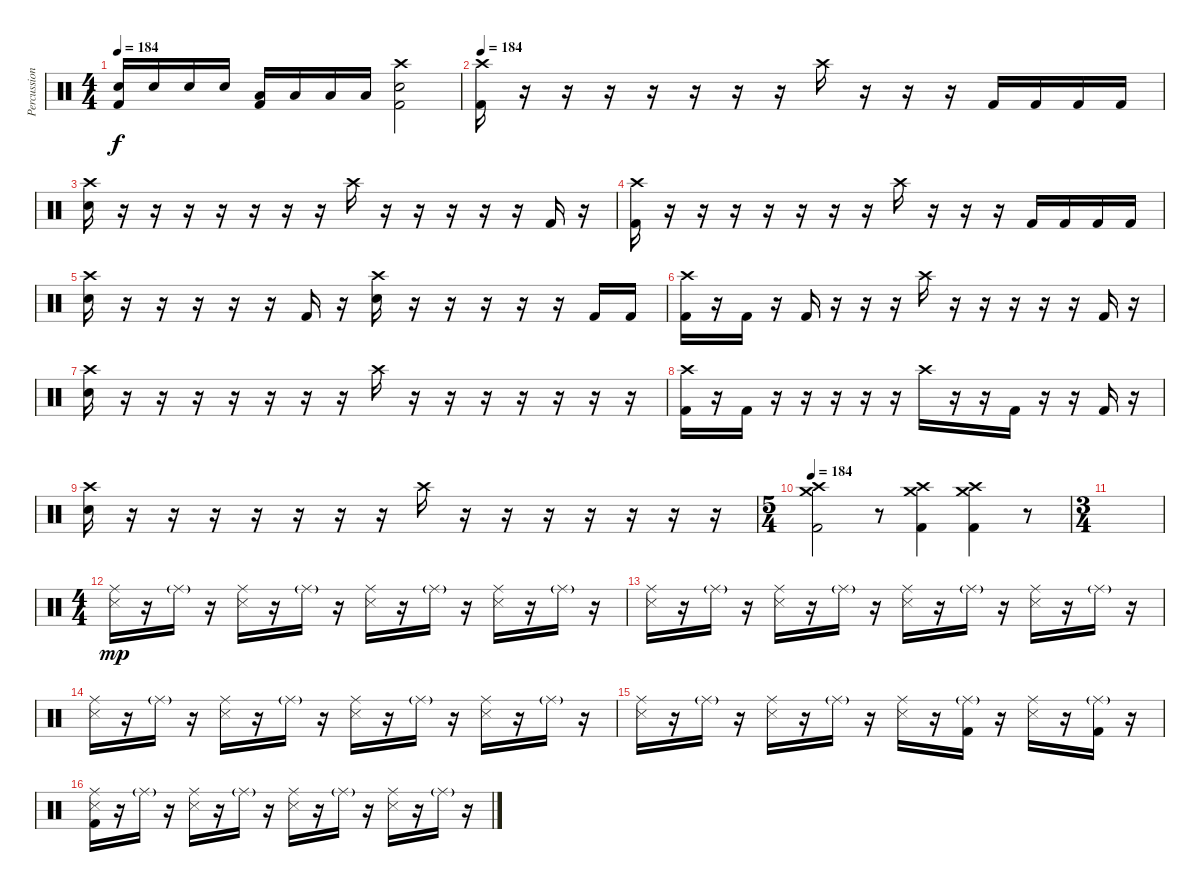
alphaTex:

\track ("Percussion" "Percussion") {instrument percussion}
\staff {score}
\articulation defaults
\ts (4 4)
\tempo 184
\clef neutral
\ks c
("Electric Snare (hit)" "Kick (hit) 2").16{dy f} "Electric Snare (hit)".16 "Electric Snare (hit)".16 "Electric Snare (hit)".16 ("Low Tom (hit)" "Kick (hit) 2").16 "Low Tom (hit)".16 "Low Tom (hit)".16 "Low Tom (hit)".16 ("Crash high (hit)" "Electric Snare (hit)" "Kick (hit) 2").2 |
\tempo 184
("Crash high (hit)" "Kick (hit) 2").16 r.16 r.16 r.16 r.16 r.16 r.16 r.16 "Crash high (hit)".16 r.16 r.16 r.16 "Kick (hit) 2".16 "Kick (hit) 2".16 "Kick (hit) 2".16 "Kick (hit) 2".16 |
("Crash high (hit)" "Electric Snare (hit)").16 r.16 r.16 r.16 r.16 r.16 r.16 r.16 "Crash high (hit)".16 r.16 r.16 r.16 r.16 r.16 "Kick (hit) 2".16 r.16 |
("Crash high (hit)" "Kick (hit) 2").16 r.16 r.16 r.16 r.16 r.16 r.16 r.16 "Crash high (hit)".16 r.16 r.16 r.16 "Kick (hit) 2".16 "Kick (hit) 2".16 "Kick (hit) 2".16 "Kick (hit) 2".16 |
("Crash high (hit)" "Electric Snare (hit)").16 r.16 r.16 r.16 r.16 r.16 "Kick (hit) 2".16 r.16 ("Crash high (hit)" "Electric Snare (hit)").16 r.16 r.16 r.16 r.16 r.16 "Kick (hit) 2".16 "Kick (hit) 2".16 |
("Crash high (hit)" "Kick (hit) 2").16 r.16 "Kick (hit) 2".16 r.16 "Kick (hit) 2".16 r.16 r.16 r.16 "Crash high (hit)".16 r.16 r.16 r.16 r.16 r.16 "Kick (hit) 2".16 r.16 |
("Crash high (hit)" "Electric Snare (hit)").16 r.16 r.16 r.16 r.16 r.16 r.16 r.16 "Crash high (hit)".16 r.16 r.16 r.16 r.16 r.16 r.16 r.16 |
("Crash high (hit)" "Kick (hit) 2").16 r.16 "Kick (hit) 2".16 r.16 r.16 r.16 r.16 r.16 "Crash high (hit)".16 r.16 r.16 "Kick (hit) 2".16 r.16 r.16 "Kick (hit) 2".16 r.16 |
("Crash high (hit)" "Electric Snare (hit)").16 r.16 r.16 r.16 r.16 r.16 r.16 r.16 "Crash high (hit)".16 r.16 r.16 r.16 r.16 r.16 r.16 r.16 |
\ts (5 4)
\tempo 184
("Crash medium (hit)" "Crash high (hit)" "Kick (hit) 2").2 r.8 ("Crash medium (hit)" "Crash high (hit)" "Kick (hit) 2").4 ("Crash medium (hit)" "Crash high (hit)" "Kick (hit) 2").4 r.8 |
\ts (3 4)
|
\ts (4 4)
("Ride (middle)" "Snare (side stick) 3").16{dy mp} r.16 "Ride (middle)"{g}.16 r.16 ("Ride (middle)" "Snare (side stick) 3").16 r.16 "Ride (middle)"{g}.16 r.16 ("Ride (middle)" "Snare (side stick) 3").16 r.16 "Ride (middle)"{g}.16 r.16 ("Ride (middle)" "Snare (side stick) 3").16 r.16 "Ride (middle)"{g}.16 r.16 |
("Ride (middle)" "Snare (side stick) 3").16 r.16 "Ride (middle)"{g}.16 r.16 ("Ride (middle)" "Snare (side stick) 3").16 r.16 "Ride (middle)"{g}.16 r.16 ("Ride (middle)" "Snare (side stick) 3").16 r.16 "Ride (middle)"{g}.16 r.16 ("Ride (middle)" "Snare (side stick) 3").16 r.16 "Ride (middle)"{g}.16 r.16 |
("Ride (middle)" "Snare (side stick) 3").16 r.16 "Ride (middle)"{g}.16 r.16 ("Ride (middle)" "Snare (side stick) 3").16 r.16 "Ride (middle)"{g}.16 r.16 ("Ride (middle)" "Snare (side stick) 3").16 r.16 "Ride (middle)"{g}.16 r.16 ("Ride (middle)" "Snare (side stick) 3").16 r.16 "Ride (middle)"{g}.16 r.16 |
("Ride (middle)" "Snare (side stick) 3").16 r.16 "Ride (middle)"{g}.16 r.16 ("Ride (middle)" "Snare (side stick) 3").16 r.16 "Ride (middle)"{g}.16 r.16 ("Ride (middle)" "Snare (side stick) 3").16 r.16 ("Ride (middle)"{g} "Kick (hit) 2").16 r.16 ("Ride (middle)" "Snare (side stick) 3").16 r.16 ("Ride (middle)"{g} "Kick (hit) 2").16 r.16 |
("Ride (middle)" "Snare (side stick) 3" "Kick (hit) 2").16 r.16 "Ride (middle)"{g}.16 r.16 ("Ride (middle)" "Snare (side stick) 3").16 r.16 "Ride (middle)"{g}.16 r.16 ("Ride (middle)" "Snare (side stick) 3").16 r.16 "Ride (middle)"{g}.16 r.16 ("Ride (middle)" "Snare (side stick) 3").16 r.16 "Ride (middle)"{g}.16 r.16
